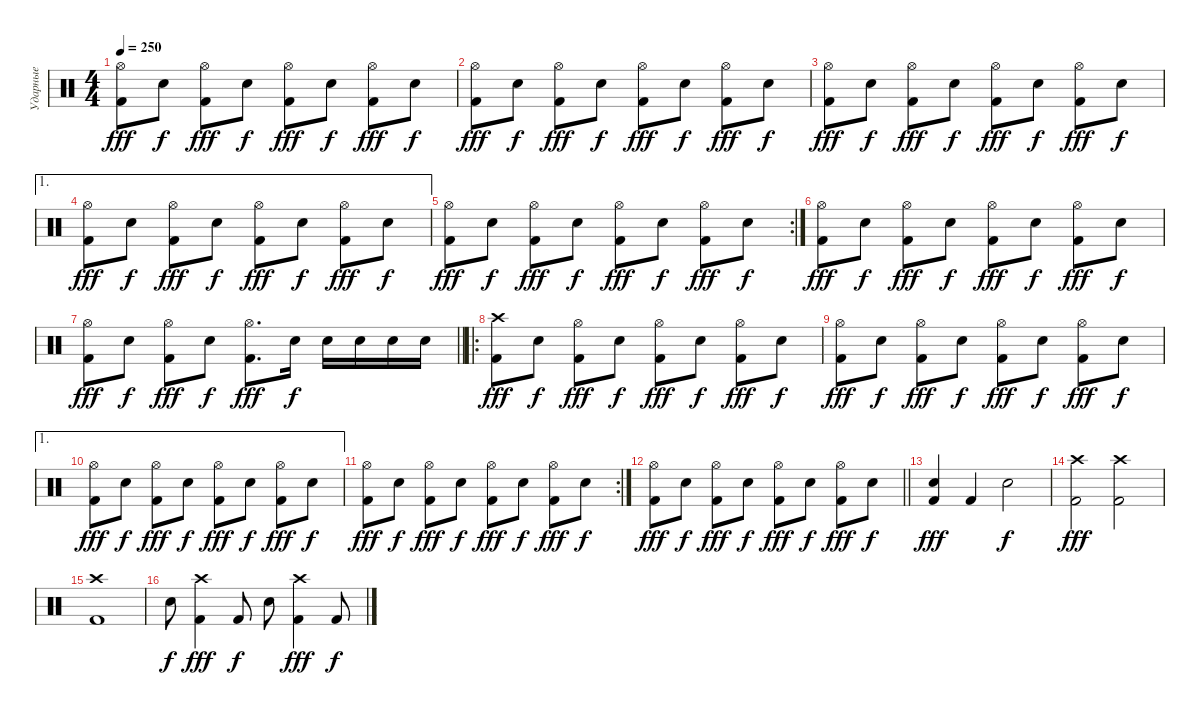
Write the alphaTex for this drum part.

\track ("Ударные" "Ударные") {instrument percussion}
\staff {score}
\articulation defaults
\ts (4 4)
\tempo 250
\clef neutral
\ks c
("Kick (hit) 2" "Hi-Hat (open)").8{dy fff} "Snare (hit) 2".8{dy f} ("Kick (hit) 2" "Hi-Hat (open)").8{dy fff} "Snare (hit) 2".8{dy f} ("Kick (hit) 2" "Hi-Hat (open)").8{dy fff} "Snare (hit) 2".8{dy f} ("Kick (hit) 2" "Hi-Hat (open)").8{dy fff} "Snare (hit) 2".8{dy f} |
("Kick (hit) 2" "Hi-Hat (open)").8{dy fff} "Snare (hit) 2".8{dy f} ("Kick (hit) 2" "Hi-Hat (open)").8{dy fff} "Snare (hit) 2".8{dy f} ("Kick (hit) 2" "Hi-Hat (open)").8{dy fff} "Snare (hit) 2".8{dy f} ("Kick (hit) 2" "Hi-Hat (open)").8{dy fff} "Snare (hit) 2".8{dy f} |
("Kick (hit) 2" "Hi-Hat (open)").8{dy fff} "Snare (hit) 2".8{dy f} ("Kick (hit) 2" "Hi-Hat (open)").8{dy fff} "Snare (hit) 2".8{dy f} ("Kick (hit) 2" "Hi-Hat (open)").8{dy fff} "Snare (hit) 2".8{dy f} ("Kick (hit) 2" "Hi-Hat (open)").8{dy fff} "Snare (hit) 2".8{dy f} |
\ae 1
("Kick (hit) 2" "Hi-Hat (open)").8{dy fff} "Snare (hit) 2".8{dy f} ("Kick (hit) 2" "Hi-Hat (open)").8{dy fff} "Snare (hit) 2".8{dy f} ("Kick (hit) 2" "Hi-Hat (open)").8{dy fff} "Snare (hit) 2".8{dy f} ("Kick (hit) 2" "Hi-Hat (open)").8{dy fff} "Snare (hit) 2".8{dy f} |
\rc 2
("Kick (hit) 2" "Hi-Hat (open)").8{dy fff} "Snare (hit) 2".8{dy f} ("Kick (hit) 2" "Hi-Hat (open)").8{dy fff} "Snare (hit) 2".8{dy f} ("Kick (hit) 2" "Hi-Hat (open)").8{dy fff} "Snare (hit) 2".8{dy f} ("Kick (hit) 2" "Hi-Hat (open)").8{dy fff} "Snare (hit) 2".8{dy f} |
("Kick (hit) 2" "Hi-Hat (open)").8{dy fff} "Snare (hit) 2".8{dy f} ("Kick (hit) 2" "Hi-Hat (open)").8{dy fff} "Snare (hit) 2".8{dy f} ("Kick (hit) 2" "Hi-Hat (open)").8{dy fff} "Snare (hit) 2".8{dy f} ("Kick (hit) 2" "Hi-Hat (open)").8{dy fff} "Snare (hit) 2".8{dy f} |
\barLineRight lightlight
("Kick (hit) 2" "Hi-Hat (open)").8{dy fff} "Snare (hit) 2".8{dy f} ("Kick (hit) 2" "Hi-Hat (open)").8{dy fff} "Snare (hit) 2".8{dy f} ("Kick (hit) 2" "Hi-Hat (open)").8{d dy fff} "Snare (hit) 2".16{dy f} "Snare (hit) 2".16 "Snare (hit) 2".16 "Snare (hit) 2".16 "Snare (hit) 2".16 |
\ro
("Kick (hit) 2" "Crash high (hit)").8{dy fff} "Snare (hit) 2".8{dy f} ("Kick (hit) 2" "Hi-Hat (open)").8{dy fff} "Snare (hit) 2".8{dy f} ("Kick (hit) 2" "Hi-Hat (open)").8{dy fff} "Snare (hit) 2".8{dy f} ("Kick (hit) 2" "Hi-Hat (open)").8{dy fff} "Snare (hit) 2".8{dy f} |
("Kick (hit) 2" "Hi-Hat (open)").8{dy fff} "Snare (hit) 2".8{dy f} ("Kick (hit) 2" "Hi-Hat (open)").8{dy fff} "Snare (hit) 2".8{dy f} ("Kick (hit) 2" "Hi-Hat (open)").8{dy fff} "Snare (hit) 2".8{dy f} ("Kick (hit) 2" "Hi-Hat (open)").8{dy fff} "Snare (hit) 2".8{dy f} |
\ae 1
("Kick (hit) 2" "Hi-Hat (open)").8{dy fff} "Snare (hit) 2".8{dy f} ("Kick (hit) 2" "Hi-Hat (open)").8{dy fff} "Snare (hit) 2".8{dy f} ("Kick (hit) 2" "Hi-Hat (open)").8{dy fff} "Snare (hit) 2".8{dy f} ("Kick (hit) 2" "Hi-Hat (open)").8{dy fff} "Snare (hit) 2".8{dy f} |
\rc 2
("Kick (hit) 2" "Hi-Hat (open)").8{dy fff} "Snare (hit) 2".8{dy f} ("Kick (hit) 2" "Hi-Hat (open)").8{dy fff} "Snare (hit) 2".8{dy f} ("Kick (hit) 2" "Hi-Hat (open)").8{dy fff} "Snare (hit) 2".8{dy f} ("Kick (hit) 2" "Hi-Hat (open)").8{dy fff} "Snare (hit) 2".8{dy f} |
\barLineRight lightlight
("Kick (hit) 2" "Hi-Hat (open)").8{dy fff} "Snare (hit) 2".8{dy f} ("Kick (hit) 2" "Hi-Hat (open)").8{dy fff} "Snare (hit) 2".8{dy f} ("Kick (hit) 2" "Hi-Hat (open)").8{dy fff} "Snare (hit) 2".8{dy f} ("Kick (hit) 2" "Hi-Hat (open)").8{dy fff} "Snare (hit) 2".8{dy f} |
("Kick (hit) 2" "Snare (hit) 2").4{dy fff} "Kick (hit) 2".4 "Snare (hit) 2".2{dy f} |
("Kick (hit) 2" "Crash high (hit)").2{dy fff} ("Kick (hit) 2" "Crash high (hit)").2 |
("Kick (hit) 2" "Crash high (hit)").1 |
"Snare (hit) 2".8{dy f} ("Kick (hit) 2" "Crash high (hit)").4{dy fff} "Kick (hit) 2".8{dy f} "Snare (hit) 2".8 ("Kick (hit) 2" "Crash high (hit)").4{dy fff} "Kick (hit) 2".8{dy f}
